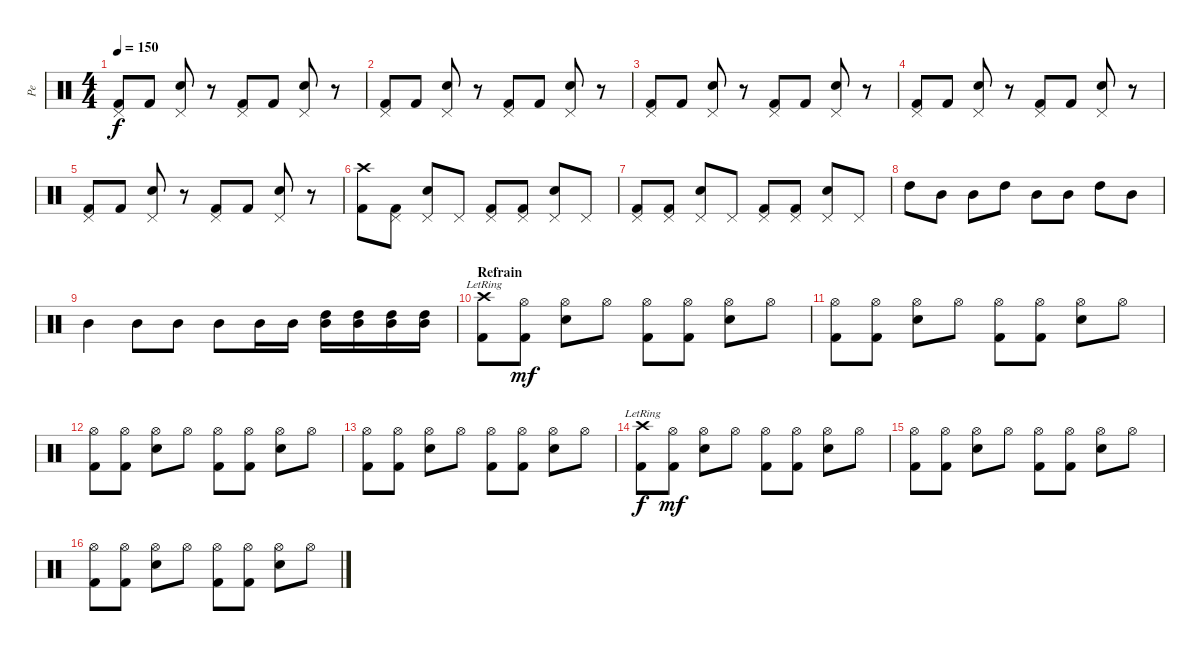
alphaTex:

\track ("Pe" "Pe") {instrument percussion}
\staff {score}
\articulation defaults
\ts (4 4)
\tempo 150
\clef neutral
\ks c
("Pedal Hi-Hat (hit)" "Kick (hit) 2").8{dy f} "Kick (hit) 2".8 ("Pedal Hi-Hat (hit)" "Snare (hit) 2").8 r.8 ("Pedal Hi-Hat (hit)" "Kick (hit) 2").8 "Kick (hit) 2".8 ("Pedal Hi-Hat (hit)" "Snare (hit) 2").8 r.8 |
("Pedal Hi-Hat (hit)" "Kick (hit) 2").8 "Kick (hit) 2".8 ("Pedal Hi-Hat (hit)" "Snare (hit) 2").8 r.8 ("Pedal Hi-Hat (hit)" "Kick (hit) 2").8 "Kick (hit) 2".8 ("Pedal Hi-Hat (hit)" "Snare (hit) 2").8 r.8 |
("Pedal Hi-Hat (hit)" "Kick (hit) 2").8 "Kick (hit) 2".8 ("Pedal Hi-Hat (hit)" "Snare (hit) 2").8 r.8 ("Pedal Hi-Hat (hit)" "Kick (hit) 2").8 "Kick (hit) 2".8 ("Pedal Hi-Hat (hit)" "Snare (hit) 2").8 r.8 |
("Pedal Hi-Hat (hit)" "Kick (hit) 2").8 "Kick (hit) 2".8 ("Pedal Hi-Hat (hit)" "Snare (hit) 2").8 r.8 ("Pedal Hi-Hat (hit)" "Kick (hit) 2").8 "Kick (hit) 2".8 ("Pedal Hi-Hat (hit)" "Snare (hit) 2").8 r.8 |
("Pedal Hi-Hat (hit)" "Kick (hit) 2").8 "Kick (hit) 2".8 ("Pedal Hi-Hat (hit)" "Snare (hit) 2").8 r.8 ("Pedal Hi-Hat (hit)" "Kick (hit) 2").8 "Kick (hit) 2".8 ("Pedal Hi-Hat (hit)" "Snare (hit) 2").8 r.8 |
("Crash high (hit)" "Kick (hit) 2").8 ("Pedal Hi-Hat (hit)" "Kick (hit) 2").8 ("Pedal Hi-Hat (hit)" "Snare (hit) 2").8 "Pedal Hi-Hat (hit)".8 ("Pedal Hi-Hat (hit)" "Kick (hit) 2").8 ("Pedal Hi-Hat (hit)" "Kick (hit) 2").8 ("Pedal Hi-Hat (hit)" "Snare (hit) 2").8 "Pedal Hi-Hat (hit)".8 |
("Pedal Hi-Hat (hit)" "Kick (hit) 2").8 ("Pedal Hi-Hat (hit)" "Kick (hit) 2").8 ("Pedal Hi-Hat (hit)" "Snare (hit) 2").8 "Pedal Hi-Hat (hit)".8 ("Pedal Hi-Hat (hit)" "Kick (hit) 2").8 ("Pedal Hi-Hat (hit)" "Kick (hit) 2").8 ("Pedal Hi-Hat (hit)" "Snare (hit) 2").8 "Pedal Hi-Hat (hit)".8 |
"High Tom (hit)".8 "Mid Tom (hit)".8 "Mid Tom (hit)".8 "High Tom (hit)".8 "Mid Tom (hit)".8 "Mid Tom (hit)".8 "High Tom (hit)".8 "Mid Tom (hit)".8 |
"Mid Tom (hit)".4 "Mid Tom (hit)".8 "Mid Tom (hit)".8 "Mid Tom (hit)".8 "Mid Tom (hit)".16 "Mid Tom (hit)".16 ("Mid Tom (hit)" "High Tom (hit)").16 ("Mid Tom (hit)" "High Tom (hit)").16 ("Mid Tom (hit)" "High Tom (hit)").16 ("Mid Tom (hit)" "High Tom (hit)").16 |
\section ("" "Refrain")
("Crash high (hit)"{lr} "Kick (hit) 2").8 ("Hi-Hat (open)" "Kick (hit) 2").8{dy mf} ("Hi-Hat (open)" "Snare (hit) 2").8 "Hi-Hat (open)".8 ("Hi-Hat (open)" "Kick (hit) 2").8 ("Hi-Hat (open)" "Kick (hit) 2").8 ("Hi-Hat (open)" "Snare (hit) 2").8 "Hi-Hat (open)".8 |
("Hi-Hat (open)" "Kick (hit) 2").8 ("Hi-Hat (open)" "Kick (hit) 2").8 ("Hi-Hat (open)" "Snare (hit) 2").8 "Hi-Hat (open)".8 ("Hi-Hat (open)" "Kick (hit) 2").8 ("Hi-Hat (open)" "Kick (hit) 2").8 ("Hi-Hat (open)" "Snare (hit) 2").8 "Hi-Hat (open)".8 |
("Hi-Hat (open)" "Kick (hit) 2").8 ("Hi-Hat (open)" "Kick (hit) 2").8 ("Hi-Hat (open)" "Snare (hit) 2").8 "Hi-Hat (open)".8 ("Hi-Hat (open)" "Kick (hit) 2").8 ("Hi-Hat (open)" "Kick (hit) 2").8 ("Hi-Hat (open)" "Snare (hit) 2").8 "Hi-Hat (open)".8 |
("Hi-Hat (open)" "Kick (hit) 2").8 ("Hi-Hat (open)" "Kick (hit) 2").8 ("Hi-Hat (open)" "Snare (hit) 2").8 "Hi-Hat (open)".8 ("Hi-Hat (open)" "Kick (hit) 2").8 ("Hi-Hat (open)" "Kick (hit) 2").8 ("Hi-Hat (open)" "Snare (hit) 2").8 "Hi-Hat (open)".8 |
("Crash high (hit)"{lr} "Kick (hit) 2").8{dy f} ("Hi-Hat (open)" "Kick (hit) 2").8{dy mf} ("Hi-Hat (open)" "Snare (hit) 2").8 "Hi-Hat (open)".8 ("Hi-Hat (open)" "Kick (hit) 2").8 ("Hi-Hat (open)" "Kick (hit) 2").8 ("Hi-Hat (open)" "Snare (hit) 2").8 "Hi-Hat (open)".8 |
("Hi-Hat (open)" "Kick (hit) 2").8 ("Hi-Hat (open)" "Kick (hit) 2").8 ("Hi-Hat (open)" "Snare (hit) 2").8 "Hi-Hat (open)".8 ("Hi-Hat (open)" "Kick (hit) 2").8 ("Hi-Hat (open)" "Kick (hit) 2").8 ("Hi-Hat (open)" "Snare (hit) 2").8 "Hi-Hat (open)".8 |
("Hi-Hat (open)" "Kick (hit) 2").8 ("Hi-Hat (open)" "Kick (hit) 2").8 ("Hi-Hat (open)" "Snare (hit) 2").8 "Hi-Hat (open)".8 ("Hi-Hat (open)" "Kick (hit) 2").8 ("Hi-Hat (open)" "Kick (hit) 2").8 ("Hi-Hat (open)" "Snare (hit) 2").8 "Hi-Hat (open)".8
